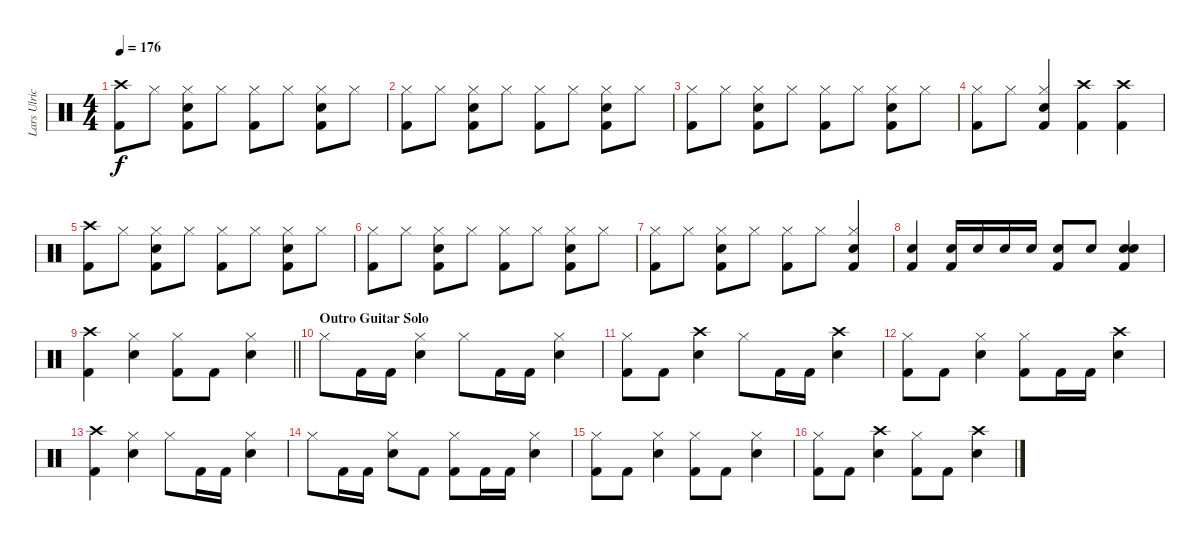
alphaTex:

\track ("Lars Ulrich" "Lars Ulric") {instrument percussion}
\staff {score}
\articulation defaults
\ts (4 4)
\tempo 176
\clef neutral
\ks c
("Crash high (hit)" "Kick (hit) 2").8{dy f} "Hi-Hat (closed)".8 ("Hi-Hat (closed)" "Snare (hit) 2" "Kick (hit) 2").8 "Hi-Hat (closed)".8 ("Hi-Hat (closed)" "Kick (hit) 2").8 "Hi-Hat (closed)".8 ("Hi-Hat (closed)" "Snare (hit) 2" "Kick (hit) 2").8 "Hi-Hat (closed)".8 |
("Hi-Hat (closed)" "Kick (hit) 2").8 "Hi-Hat (closed)".8 ("Hi-Hat (closed)" "Snare (hit) 2" "Kick (hit) 2").8 "Hi-Hat (closed)".8 ("Hi-Hat (closed)" "Kick (hit) 2").8 "Hi-Hat (closed)".8 ("Hi-Hat (closed)" "Snare (hit) 2" "Kick (hit) 2").8 "Hi-Hat (closed)".8 |
("Hi-Hat (closed)" "Kick (hit) 2").8 "Hi-Hat (closed)".8 ("Hi-Hat (closed)" "Snare (hit) 2" "Kick (hit) 2").8 "Hi-Hat (closed)".8 ("Hi-Hat (closed)" "Kick (hit) 2").8 "Hi-Hat (closed)".8 ("Hi-Hat (closed)" "Snare (hit) 2" "Kick (hit) 2").8 "Hi-Hat (closed)".8 |
("Hi-Hat (closed)" "Kick (hit) 2").8 "Hi-Hat (closed)".8 ("Hi-Hat (closed)" "Snare (hit) 2" "Kick (hit) 2").4 ("Crash high (hit)" "Kick (hit) 2").4 ("Crash high (hit)" "Kick (hit) 2").4 |
("Crash high (hit)" "Kick (hit) 2").8 "Hi-Hat (closed)".8 ("Hi-Hat (closed)" "Snare (hit) 2" "Kick (hit) 2").8 "Hi-Hat (closed)".8 ("Hi-Hat (closed)" "Kick (hit) 2").8 "Hi-Hat (closed)".8 ("Hi-Hat (closed)" "Snare (hit) 2" "Kick (hit) 2").8 "Hi-Hat (closed)".8 |
("Hi-Hat (closed)" "Kick (hit) 2").8 "Hi-Hat (closed)".8 ("Hi-Hat (closed)" "Snare (hit) 2" "Kick (hit) 2").8 "Hi-Hat (closed)".8 ("Hi-Hat (closed)" "Kick (hit) 2").8 "Hi-Hat (closed)".8 ("Hi-Hat (closed)" "Snare (hit) 2" "Kick (hit) 2").8 "Hi-Hat (closed)".8 |
("Hi-Hat (closed)" "Kick (hit) 2").8 "Hi-Hat (closed)".8 ("Hi-Hat (closed)" "Snare (hit) 2" "Kick (hit) 2").8 "Hi-Hat (closed)".8 ("Hi-Hat (closed)" "Kick (hit) 2").8 "Hi-Hat (closed)".8 ("Hi-Hat (closed)" "Snare (hit) 2" "Kick (hit) 2").4 |
("Snare (hit) 2" "Kick (hit) 2").4 ("Snare (hit) 2" "Kick (hit) 2").16 "Snare (hit) 2".16 "Snare (hit) 2".16 "Snare (hit) 2".16 ("Snare (hit) 2" "Kick (hit) 2").8 "Snare (hit) 2".8 ("Snare (hit) 2" "Snare (hit) 2" "Kick (hit) 2").4 |
\barLineRight lightlight
("Crash high (hit)" "Kick (hit) 2").4 ("Hi-Hat (closed)" "Snare (hit) 2").4 ("Hi-Hat (closed)" "Kick (hit) 2").8 "Kick (hit) 2".8 ("Hi-Hat (closed)" "Snare (hit) 2").4 |
\section ("" "Outro Guitar Solo")
"Hi-Hat (closed)".8 "Kick (hit) 2".16 "Kick (hit) 2".16 ("Hi-Hat (closed)" "Snare (hit) 2").4 "Hi-Hat (closed)".8 "Kick (hit) 2".16 "Kick (hit) 2".16 ("Hi-Hat (closed)" "Snare (hit) 2").4 |
("Hi-Hat (closed)" "Kick (hit) 2").8 "Kick (hit) 2".8 ("Crash high (hit)" "Snare (hit) 2").4 "Hi-Hat (closed)".8 "Kick (hit) 2".16 "Kick (hit) 2".16 ("Crash high (hit)" "Snare (hit) 2").4 |
("Hi-Hat (closed)" "Kick (hit) 2").8 "Kick (hit) 2".8 ("Hi-Hat (closed)" "Snare (hit) 2").4 ("Hi-Hat (closed)" "Kick (hit) 2").8 "Kick (hit) 2".16 "Kick (hit) 2".16 ("Crash high (hit)" "Snare (hit) 2").4 |
("Crash high (hit)" "Kick (hit) 2").4 ("Hi-Hat (closed)" "Snare (hit) 2").4 "Hi-Hat (closed)".8 "Kick (hit) 2".16 "Kick (hit) 2".16 ("Hi-Hat (closed)" "Snare (hit) 2").4 |
"Hi-Hat (closed)".8 "Kick (hit) 2".16 "Kick (hit) 2".16 ("Hi-Hat (closed)" "Snare (hit) 2").8 "Kick (hit) 2".8 ("Hi-Hat (closed)" "Kick (hit) 2").8 "Kick (hit) 2".16 "Kick (hit) 2".16 ("Hi-Hat (closed)" "Snare (hit) 2").4 |
("Hi-Hat (closed)" "Kick (hit) 2").8 "Kick (hit) 2".8 ("Hi-Hat (closed)" "Snare (hit) 2").4 ("Hi-Hat (closed)" "Kick (hit) 2").8 "Kick (hit) 2".8 ("Hi-Hat (closed)" "Snare (hit) 2").4 |
("Hi-Hat (closed)" "Kick (hit) 2").8 "Kick (hit) 2".8 ("Crash high (hit)" "Snare (hit) 2").4 ("Hi-Hat (closed)" "Kick (hit) 2").8 "Kick (hit) 2".8 ("Crash high (hit)" "Snare (hit) 2").4
